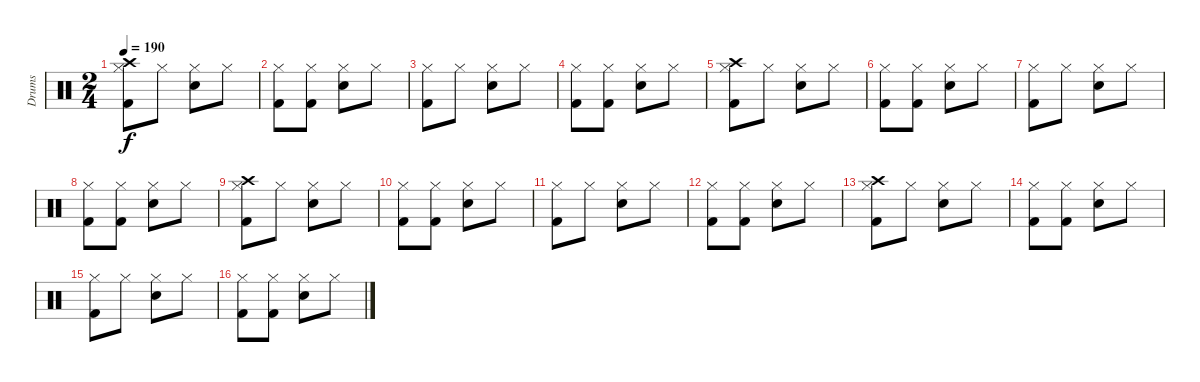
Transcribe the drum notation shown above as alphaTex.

\track ("Drums" "Drums") {instrument percussion}
\staff {score}
\articulation defaults
\ts (2 4)
\tempo 190
\clef neutral
\ks c
("Kick (hit) 2" "Hi-Hat (closed)" "Crash high (hit)").8{dy f} "Hi-Hat (closed)".8 ("Snare (hit) 2" "Hi-Hat (closed)").8 "Hi-Hat (closed)".8 |
("Kick (hit) 2" "Hi-Hat (closed)").8 ("Kick (hit) 2" "Hi-Hat (closed)").8 ("Snare (hit) 2" "Hi-Hat (closed)").8 "Hi-Hat (closed)".8 |
("Kick (hit) 2" "Hi-Hat (closed)").8 "Hi-Hat (closed)".8 ("Snare (hit) 2" "Hi-Hat (closed)").8 "Hi-Hat (closed)".8 |
("Kick (hit) 2" "Hi-Hat (closed)").8 ("Kick (hit) 2" "Hi-Hat (closed)").8 ("Snare (hit) 2" "Hi-Hat (closed)").8 "Hi-Hat (closed)".8 |
("Kick (hit) 2" "Hi-Hat (closed)" "Crash high (hit)").8 "Hi-Hat (closed)".8 ("Snare (hit) 2" "Hi-Hat (closed)").8 "Hi-Hat (closed)".8 |
("Kick (hit) 2" "Hi-Hat (closed)").8 ("Kick (hit) 2" "Hi-Hat (closed)").8 ("Snare (hit) 2" "Hi-Hat (closed)").8 "Hi-Hat (closed)".8 |
("Kick (hit) 2" "Hi-Hat (closed)").8 "Hi-Hat (closed)".8 ("Snare (hit) 2" "Hi-Hat (closed)").8 "Hi-Hat (closed)".8 |
("Kick (hit) 2" "Hi-Hat (closed)").8 ("Kick (hit) 2" "Hi-Hat (closed)").8 ("Snare (hit) 2" "Hi-Hat (closed)").8 "Hi-Hat (closed)".8 |
("Kick (hit) 2" "Hi-Hat (closed)" "Crash high (hit)").8 "Hi-Hat (closed)".8 ("Snare (hit) 2" "Hi-Hat (closed)").8 "Hi-Hat (closed)".8 |
("Kick (hit) 2" "Hi-Hat (closed)").8 ("Kick (hit) 2" "Hi-Hat (closed)").8 ("Snare (hit) 2" "Hi-Hat (closed)").8 "Hi-Hat (closed)".8 |
("Kick (hit) 2" "Hi-Hat (closed)").8 "Hi-Hat (closed)".8 ("Snare (hit) 2" "Hi-Hat (closed)").8 "Hi-Hat (closed)".8 |
("Kick (hit) 2" "Hi-Hat (closed)").8 ("Kick (hit) 2" "Hi-Hat (closed)").8 ("Snare (hit) 2" "Hi-Hat (closed)").8 "Hi-Hat (closed)".8 |
("Kick (hit) 2" "Hi-Hat (closed)" "Crash high (hit)").8 "Hi-Hat (closed)".8 ("Snare (hit) 2" "Hi-Hat (closed)").8 "Hi-Hat (closed)".8 |
("Kick (hit) 2" "Hi-Hat (closed)").8 ("Kick (hit) 2" "Hi-Hat (closed)").8 ("Snare (hit) 2" "Hi-Hat (closed)").8 "Hi-Hat (closed)".8 |
("Kick (hit) 2" "Hi-Hat (closed)").8 "Hi-Hat (closed)".8 ("Snare (hit) 2" "Hi-Hat (closed)").8 "Hi-Hat (closed)".8 |
("Kick (hit) 2" "Hi-Hat (closed)").8 ("Kick (hit) 2" "Hi-Hat (closed)").8 ("Snare (hit) 2" "Hi-Hat (closed)").8 "Hi-Hat (closed)".8
